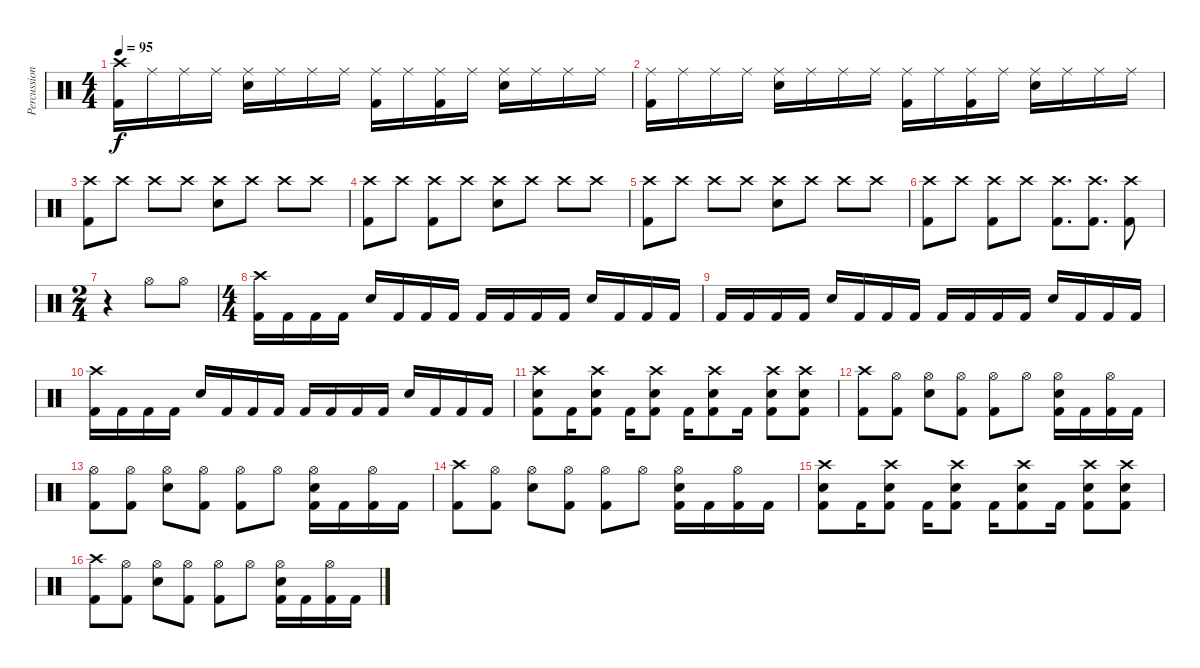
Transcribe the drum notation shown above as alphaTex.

\track ("Percussions" "Percussion") {instrument percussion}
\staff {score}
\articulation defaults
\ts (4 4)
\tempo 95
\clef neutral
\ks c
("Crash high (hit)" "Kick (hit) 2").16{dy f} "Ride (middle)".16 "Ride (middle)".16 "Ride (middle)".16 ("Ride (middle)" "Snare (hit) 2").16 "Ride (middle)".16 "Ride (middle)".16 "Ride (middle)".16 ("Ride (middle)" "Kick (hit) 2").16 "Ride (middle)".16 ("Ride (middle)" "Kick (hit) 2").16 "Ride (middle)".16 ("Ride (middle)" "Snare (hit) 2").16 "Ride (middle)".16 "Ride (middle)".16 "Ride (middle)".16 |
("Ride (middle)" "Kick (hit) 2").16 "Ride (middle)".16 "Ride (middle)".16 "Ride (middle)".16 ("Ride (middle)" "Snare (hit) 2").16 "Ride (middle)".16 "Ride (middle)".16 "Ride (middle)".16 ("Ride (middle)" "Kick (hit) 2").16 "Ride (middle)".16 ("Ride (middle)" "Kick (hit) 2").16 "Ride (middle)".16 ("Ride (middle)" "Snare (hit) 2").16 "Ride (middle)".16 "Ride (middle)".16 "Ride (middle)".16 |
("Crash high (hit)" "Kick (hit) 2").8 "Crash high (hit)".8 "Crash high (hit)".8 "Crash high (hit)".8 ("Crash high (hit)" "Snare (hit) 2").8 "Crash high (hit)".8 "Crash high (hit)".8 "Crash high (hit)".8 |
("Crash high (hit)" "Kick (hit) 2").8 "Crash high (hit)".8 ("Crash high (hit)" "Kick (hit) 2").8 "Crash high (hit)".8 ("Crash high (hit)" "Snare (hit) 2").8 "Crash high (hit)".8 "Crash high (hit)".8 "Crash high (hit)".8 |
("Crash high (hit)" "Kick (hit) 2").8 "Crash high (hit)".8 "Crash high (hit)".8 "Crash high (hit)".8 ("Crash high (hit)" "Snare (hit) 2").8 "Crash high (hit)".8 "Crash high (hit)".8 "Crash high (hit)".8 |
("Crash high (hit)" "Kick (hit) 2").8 "Crash high (hit)".8 ("Crash high (hit)" "Kick (hit) 2").8 "Crash high (hit)".8 ("Crash high (hit)" "Kick (hit) 2").8{d} ("Crash high (hit)" "Kick (hit) 2").8{d} ("Crash high (hit)" "Kick (hit) 2").8 |
\ts (2 4)
r.4 "Hi-Hat (open)".8 "Hi-Hat (open)".8 |
\ts (4 4)
("Crash high (hit)" "Kick (hit) 2").16 "Kick (hit) 2".16 "Kick (hit) 2".16 "Kick (hit) 2".16 "Snare (hit) 2".16 "Kick (hit) 2".16 "Kick (hit) 2".16 "Kick (hit) 2".16 "Kick (hit) 2".16 "Kick (hit) 2".16 "Kick (hit) 2".16 "Kick (hit) 2".16 "Snare (hit) 2".16 "Kick (hit) 2".16 "Kick (hit) 2".16 "Kick (hit) 2".16 |
"Kick (hit) 2".16 "Kick (hit) 2".16 "Kick (hit) 2".16 "Kick (hit) 2".16 "Snare (hit) 2".16 "Kick (hit) 2".16 "Kick (hit) 2".16 "Kick (hit) 2".16 "Kick (hit) 2".16 "Kick (hit) 2".16 "Kick (hit) 2".16 "Kick (hit) 2".16 "Snare (hit) 2".16 "Kick (hit) 2".16 "Kick (hit) 2".16 "Kick (hit) 2".16 |
("Crash high (hit)" "Kick (hit) 2").16 "Kick (hit) 2".16 "Kick (hit) 2".16 "Kick (hit) 2".16 "Snare (hit) 2".16 "Kick (hit) 2".16 "Kick (hit) 2".16 "Kick (hit) 2".16 "Kick (hit) 2".16 "Kick (hit) 2".16 "Kick (hit) 2".16 "Kick (hit) 2".16 "Snare (hit) 2".16 "Kick (hit) 2".16 "Kick (hit) 2".16 "Kick (hit) 2".16 |
("Crash high (hit)" "Snare (hit) 2" "Kick (hit) 2").8 "Kick (hit) 2".16 ("Crash high (hit)" "Snare (hit) 2" "Kick (hit) 2").8 "Kick (hit) 2".16 ("Crash high (hit)" "Snare (hit) 2" "Kick (hit) 2").8 "Kick (hit) 2".16 ("Crash high (hit)" "Snare (hit) 2" "Kick (hit) 2").8 "Kick (hit) 2".16 ("Crash high (hit)" "Snare (hit) 2" "Kick (hit) 2").8 ("Crash high (hit)" "Snare (hit) 2" "Kick (hit) 2").8 |
("Crash high (hit)" "Kick (hit) 2").8 ("Hi-Hat (open)" "Kick (hit) 2").8 ("Hi-Hat (open)" "Snare (hit) 2").8 ("Hi-Hat (open)" "Kick (hit) 2").8 ("Hi-Hat (open)" "Kick (hit) 2").8 "Hi-Hat (open)".8 ("Snare (hit) 2" "Hi-Hat (open)" "Kick (hit) 2").16 "Kick (hit) 2".16 ("Hi-Hat (open)" "Kick (hit) 2").16 "Kick (hit) 2".16 |
("Hi-Hat (open)" "Kick (hit) 2").8 ("Hi-Hat (open)" "Kick (hit) 2").8 ("Hi-Hat (open)" "Snare (hit) 2").8 ("Hi-Hat (open)" "Kick (hit) 2").8 ("Hi-Hat (open)" "Kick (hit) 2").8 "Hi-Hat (open)".8 ("Snare (hit) 2" "Hi-Hat (open)" "Kick (hit) 2").16 "Kick (hit) 2".16 ("Hi-Hat (open)" "Kick (hit) 2").16 "Kick (hit) 2".16 |
("Crash high (hit)" "Kick (hit) 2").8 ("Hi-Hat (open)" "Kick (hit) 2").8 ("Hi-Hat (open)" "Snare (hit) 2").8 ("Hi-Hat (open)" "Kick (hit) 2").8 ("Hi-Hat (open)" "Kick (hit) 2").8 "Hi-Hat (open)".8 ("Snare (hit) 2" "Hi-Hat (open)" "Kick (hit) 2").16 "Kick (hit) 2".16 ("Hi-Hat (open)" "Kick (hit) 2").16 "Kick (hit) 2".16 |
("Crash high (hit)" "Snare (hit) 2" "Kick (hit) 2").8 "Kick (hit) 2".16 ("Crash high (hit)" "Snare (hit) 2" "Kick (hit) 2").8 "Kick (hit) 2".16 ("Crash high (hit)" "Snare (hit) 2" "Kick (hit) 2").8 "Kick (hit) 2".16 ("Crash high (hit)" "Snare (hit) 2" "Kick (hit) 2").8 "Kick (hit) 2".16 ("Crash high (hit)" "Snare (hit) 2" "Kick (hit) 2").8 ("Crash high (hit)" "Snare (hit) 2" "Kick (hit) 2").8 |
("Crash high (hit)" "Kick (hit) 2").8 ("Hi-Hat (open)" "Kick (hit) 2").8 ("Hi-Hat (open)" "Snare (hit) 2").8 ("Hi-Hat (open)" "Kick (hit) 2").8 ("Hi-Hat (open)" "Kick (hit) 2").8 "Hi-Hat (open)".8 ("Snare (hit) 2" "Hi-Hat (open)" "Kick (hit) 2").16 "Kick (hit) 2".16 ("Hi-Hat (open)" "Kick (hit) 2").16 "Kick (hit) 2".16
